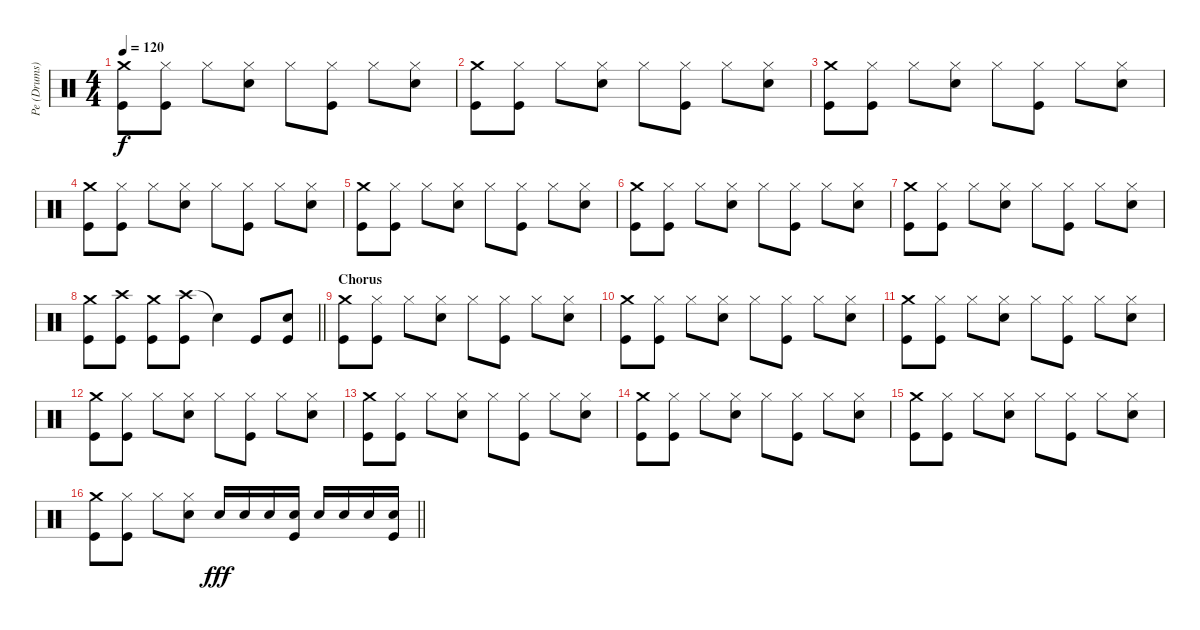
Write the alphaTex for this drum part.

\track ("Pe (Drums)" "Pe (Drums)") {instrument percussion}
\staff {score}
\articulation defaults
\ts (4 4)
\tempo 120
\clef neutral
\ks c
("Crash medium (hit)" "Kick (hit)").8{dy f} ("Hi-Hat (closed)" "Kick (hit)").8 "Hi-Hat (closed)".8 ("Hi-Hat (closed)" "Electric Snare (hit)").8 "Hi-Hat (closed)".8 ("Hi-Hat (closed)" "Kick (hit)").8 "Hi-Hat (closed)".8 ("Hi-Hat (closed)" "Electric Snare (hit)").8 |
("Crash medium (hit)" "Kick (hit)").8 ("Hi-Hat (closed)" "Kick (hit)").8 "Hi-Hat (closed)".8 ("Hi-Hat (closed)" "Electric Snare (hit)").8 "Hi-Hat (closed)".8 ("Hi-Hat (closed)" "Kick (hit)").8 "Hi-Hat (closed)".8 ("Hi-Hat (closed)" "Electric Snare (hit)").8 |
("Crash medium (hit)" "Kick (hit)").8 ("Hi-Hat (closed)" "Kick (hit)").8 "Hi-Hat (closed)".8 ("Hi-Hat (closed)" "Electric Snare (hit)").8 "Hi-Hat (closed)".8 ("Hi-Hat (closed)" "Kick (hit)").8 "Hi-Hat (closed)".8 ("Hi-Hat (closed)" "Electric Snare (hit)").8 |
("Crash medium (hit)" "Kick (hit)").8 ("Hi-Hat (closed)" "Kick (hit)").8 "Hi-Hat (closed)".8 ("Hi-Hat (closed)" "Electric Snare (hit)").8 "Hi-Hat (closed)".8 ("Hi-Hat (closed)" "Kick (hit)").8 "Hi-Hat (closed)".8 ("Hi-Hat (closed)" "Electric Snare (hit)").8 |
("Crash medium (hit)" "Kick (hit)").8 ("Hi-Hat (closed)" "Kick (hit)").8 "Hi-Hat (closed)".8 ("Hi-Hat (closed)" "Electric Snare (hit)").8 "Hi-Hat (closed)".8 ("Hi-Hat (closed)" "Kick (hit)").8 "Hi-Hat (closed)".8 ("Hi-Hat (closed)" "Electric Snare (hit)").8 |
("Crash medium (hit)" "Kick (hit)").8 ("Hi-Hat (closed)" "Kick (hit)").8 "Hi-Hat (closed)".8 ("Hi-Hat (closed)" "Electric Snare (hit)").8 "Hi-Hat (closed)".8 ("Hi-Hat (closed)" "Kick (hit)").8 "Hi-Hat (closed)".8 ("Hi-Hat (closed)" "Electric Snare (hit)").8 |
("Crash medium (hit)" "Kick (hit)").8 ("Hi-Hat (closed)" "Kick (hit)").8 "Hi-Hat (closed)".8 ("Hi-Hat (closed)" "Electric Snare (hit)").8 "Hi-Hat (closed)".8 ("Hi-Hat (closed)" "Kick (hit)").8 "Hi-Hat (closed)".8 ("Hi-Hat (closed)" "Electric Snare (hit)").8 |
\barLineRight lightlight
("Crash medium (hit)" "Kick (hit)").8 ("Crash high (hit)" "Kick (hit)").8 ("Crash medium (hit)" "Kick (hit)").8 ("Crash high (hit)" "Kick (hit)").8 "Snare (hit)"{t}.4 "Kick (hit)".8 ("Electric Snare (hit)" "Kick (hit)").8 |
\section ("" "Chorus")
("Crash medium (hit)" "Kick (hit)").8 ("Hi-Hat (closed)" "Kick (hit)").8 "Hi-Hat (closed)".8 ("Hi-Hat (closed)" "Electric Snare (hit)").8 "Hi-Hat (closed)".8 ("Hi-Hat (closed)" "Kick (hit)").8 "Hi-Hat (closed)".8 ("Hi-Hat (closed)" "Electric Snare (hit)").8 |
("Crash medium (hit)" "Kick (hit)").8 ("Hi-Hat (closed)" "Kick (hit)").8 "Hi-Hat (closed)".8 ("Hi-Hat (closed)" "Electric Snare (hit)").8 "Hi-Hat (closed)".8 ("Hi-Hat (closed)" "Kick (hit)").8 "Hi-Hat (closed)".8 ("Hi-Hat (closed)" "Electric Snare (hit)").8 |
("Crash medium (hit)" "Kick (hit)").8 ("Hi-Hat (closed)" "Kick (hit)").8 "Hi-Hat (closed)".8 ("Hi-Hat (closed)" "Electric Snare (hit)").8 "Hi-Hat (closed)".8 ("Hi-Hat (closed)" "Kick (hit)").8 "Hi-Hat (closed)".8 ("Hi-Hat (closed)" "Electric Snare (hit)").8 |
("Crash medium (hit)" "Kick (hit)").8 ("Hi-Hat (closed)" "Kick (hit)").8 "Hi-Hat (closed)".8 ("Hi-Hat (closed)" "Electric Snare (hit)").8 "Hi-Hat (closed)".8 ("Hi-Hat (closed)" "Kick (hit)").8 "Hi-Hat (closed)".8 ("Hi-Hat (closed)" "Electric Snare (hit)").8 |
("Crash medium (hit)" "Kick (hit)").8 ("Hi-Hat (closed)" "Kick (hit)").8 "Hi-Hat (closed)".8 ("Hi-Hat (closed)" "Electric Snare (hit)").8 "Hi-Hat (closed)".8 ("Hi-Hat (closed)" "Kick (hit)").8 "Hi-Hat (closed)".8 ("Hi-Hat (closed)" "Electric Snare (hit)").8 |
("Crash medium (hit)" "Kick (hit)").8 ("Hi-Hat (closed)" "Kick (hit)").8 "Hi-Hat (closed)".8 ("Hi-Hat (closed)" "Electric Snare (hit)").8 "Hi-Hat (closed)".8 ("Hi-Hat (closed)" "Kick (hit)").8 "Hi-Hat (closed)".8 ("Hi-Hat (closed)" "Electric Snare (hit)").8 |
("Crash medium (hit)" "Kick (hit)").8 ("Hi-Hat (closed)" "Kick (hit)").8 "Hi-Hat (closed)".8 ("Hi-Hat (closed)" "Electric Snare (hit)").8 "Hi-Hat (closed)".8 ("Hi-Hat (closed)" "Kick (hit)").8 "Hi-Hat (closed)".8 ("Hi-Hat (closed)" "Electric Snare (hit)").8 |
\barLineRight lightlight
("Crash medium (hit)" "Kick (hit)").8 ("Hi-Hat (closed)" "Kick (hit)").8 "Hi-Hat (closed)".8 ("Hi-Hat (closed)" "Electric Snare (hit)").8 "Electric Snare (hit)".16{dy fff} "Electric Snare (hit)".16 "Electric Snare (hit)".16 ("Electric Snare (hit)" "Kick (hit)").16 "Electric Snare (hit)".16 "Electric Snare (hit)".16 "Electric Snare (hit)".16 ("Electric Snare (hit)" "Kick (hit)").16
